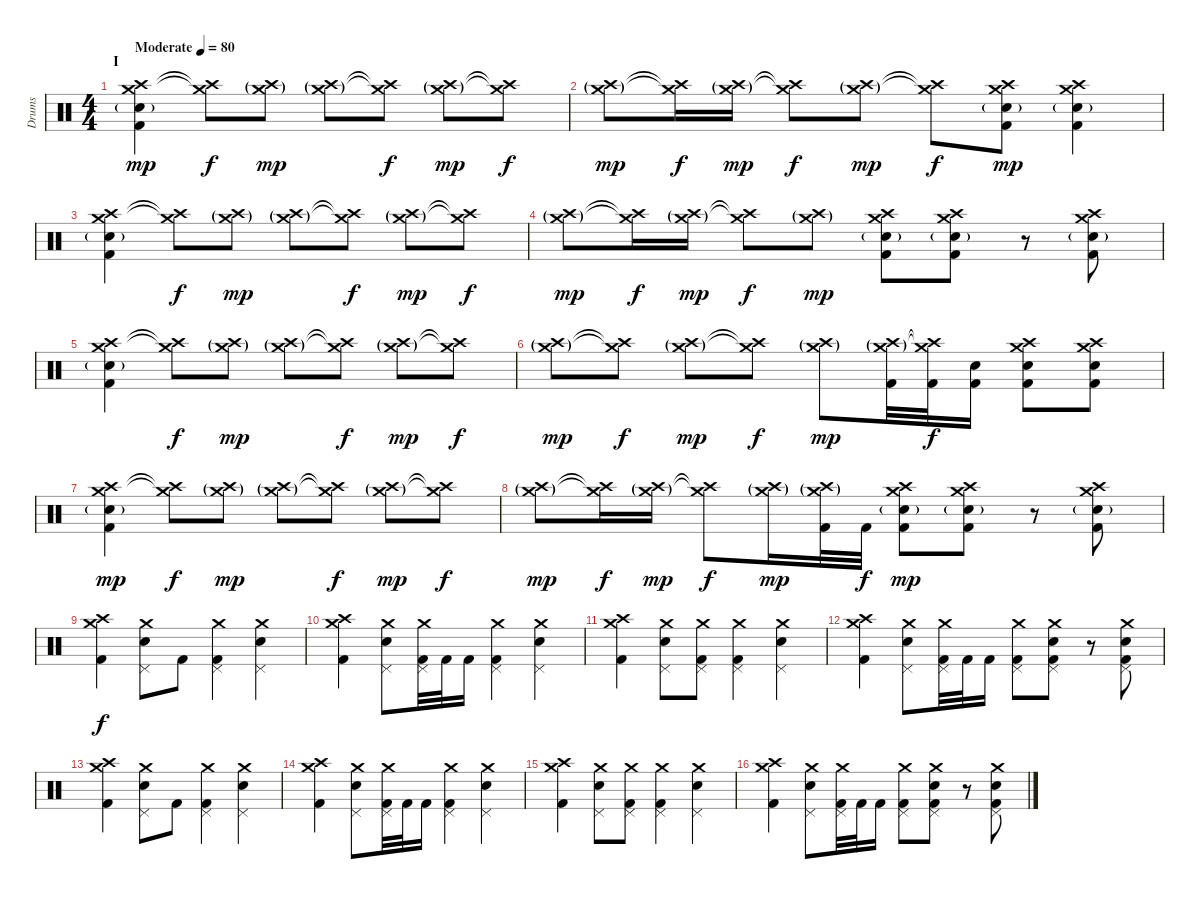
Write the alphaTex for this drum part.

\track ("Drums" "Drums") {instrument percussion}
\staff {score}
\articulation defaults
\ts (4 4)
\section ("" "I")
\tempo (80 "Moderate")
\clef neutral
\ks c
("Crash medium (hit)" "Crash high (hit)" "Electric Snare (hit)"{g} "Kick (hit) 2").4{dy mp} ("Crash medium (hit)"{t} "Crash high (hit)"{t}).8{dy f} ("Crash medium (hit)"{g} "Crash high (hit)"{g}).8{dy mp} ("Crash medium (hit)"{g} "Crash high (hit)"{g}).8 ("Crash medium (hit)"{t} "Crash high (hit)"{t}).8{dy f} ("Crash medium (hit)"{g} "Crash high (hit)"{g}).8{dy mp} ("Crash medium (hit)"{t} "Crash high (hit)"{t}).8{dy f} |
("Crash medium (hit)"{g} "Crash high (hit)"{g}).8{dy mp} ("Crash medium (hit)"{t} "Crash high (hit)"{t}).16{dy f} ("Crash medium (hit)"{g} "Crash high (hit)"{g}).16{dy mp} ("Crash medium (hit)"{t} "Crash high (hit)"{t}).8{dy f} ("Crash medium (hit)"{g} "Crash high (hit)"{g}).8{dy mp} ("Crash medium (hit)"{t} "Crash high (hit)"{t}).8{dy f} ("Crash medium (hit)" "Crash high (hit)" "Electric Snare (hit)"{g} "Kick (hit) 2").8{dy mp} ("Crash medium (hit)" "Crash high (hit)" "Electric Snare (hit)"{g} "Kick (hit) 2").4 |
("Crash medium (hit)" "Crash high (hit)" "Electric Snare (hit)"{g} "Kick (hit) 2").4 ("Crash medium (hit)"{t} "Crash high (hit)"{t}).8{dy f} ("Crash medium (hit)"{g} "Crash high (hit)"{g}).8{dy mp} ("Crash medium (hit)"{g} "Crash high (hit)"{g}).8 ("Crash medium (hit)"{t} "Crash high (hit)"{t}).8{dy f} ("Crash medium (hit)"{g} "Crash high (hit)"{g}).8{dy mp} ("Crash medium (hit)"{t} "Crash high (hit)"{t}).8{dy f} |
("Crash medium (hit)"{g} "Crash high (hit)"{g}).8{dy mp} ("Crash medium (hit)"{t} "Crash high (hit)"{t}).16{dy f} ("Crash medium (hit)"{g} "Crash high (hit)"{g}).16{dy mp} ("Crash medium (hit)"{t} "Crash high (hit)"{t}).8{dy f} ("Crash medium (hit)"{g} "Crash high (hit)"{g}).8{dy mp} ("Crash medium (hit)" "Crash high (hit)" "Electric Snare (hit)"{g} "Kick (hit) 2").8 ("Crash medium (hit)" "Crash high (hit)" "Electric Snare (hit)"{g} "Kick (hit) 2").8 r.8 ("Crash medium (hit)" "Crash high (hit)" "Electric Snare (hit)"{g} "Kick (hit) 2").8 |
("Crash medium (hit)" "Crash high (hit)" "Electric Snare (hit)"{g} "Kick (hit) 2").4 ("Crash medium (hit)"{t} "Crash high (hit)"{t}).8{dy f} ("Crash medium (hit)"{g} "Crash high (hit)"{g}).8{dy mp} ("Crash medium (hit)"{g} "Crash high (hit)"{g}).8 ("Crash medium (hit)"{t} "Crash high (hit)"{t}).8{dy f} ("Crash medium (hit)"{g} "Crash high (hit)"{g}).8{dy mp} ("Crash medium (hit)"{t} "Crash high (hit)"{t}).8{dy f} |
("Crash medium (hit)"{g} "Crash high (hit)"{g}).8{dy mp} ("Crash medium (hit)"{t} "Crash high (hit)"{t}).8{dy f} ("Crash medium (hit)"{g} "Crash high (hit)"{g}).8{dy mp} ("Crash medium (hit)"{t} "Crash high (hit)"{t}).8{dy f} ("Crash medium (hit)"{g} "Crash high (hit)"{g}).8{dy mp} ("Crash medium (hit)"{g} "Crash high (hit)"{g} "Kick (hit) 2").32 ("Crash medium (hit)"{t} "Crash high (hit)"{t} "Kick (hit) 2").32{dy f} ("Electric Snare (hit)" "Kick (hit) 2").16 ("Crash medium (hit)" "Crash high (hit)" "Electric Snare (hit)" "Kick (hit) 2").8 ("Crash medium (hit)" "Crash high (hit)" "Electric Snare (hit)" "Kick (hit) 2").8 |
("Crash medium (hit)" "Crash high (hit)" "Electric Snare (hit)"{g} "Kick (hit) 2").4{dy mp} ("Crash medium (hit)"{t} "Crash high (hit)"{t}).8{dy f} ("Crash medium (hit)"{g} "Crash high (hit)"{g}).8{dy mp} ("Crash medium (hit)"{g} "Crash high (hit)"{g}).8 ("Crash medium (hit)"{t} "Crash high (hit)"{t}).8{dy f} ("Crash medium (hit)"{g} "Crash high (hit)"{g}).8{dy mp} ("Crash medium (hit)"{t} "Crash high (hit)"{t}).8{dy f} |
("Crash medium (hit)"{g} "Crash high (hit)"{g}).8{dy mp} ("Crash medium (hit)"{t} "Crash high (hit)"{t}).16{dy f} ("Crash medium (hit)"{g} "Crash high (hit)"{g}).16{dy mp} ("Crash medium (hit)"{t} "Crash high (hit)"{t}).8{dy f} ("Crash medium (hit)"{g} "Crash high (hit)"{g}).16{dy mp} ("Crash medium (hit)"{g} "Crash high (hit)"{g} "Kick (hit) 2").32 "Kick (hit) 2".32{dy f} ("Crash medium (hit)" "Crash high (hit)" "Electric Snare (hit)"{g} "Kick (hit) 2").8{dy mp} ("Crash medium (hit)" "Crash high (hit)" "Electric Snare (hit)"{g} "Kick (hit) 2").8 r.8 ("Crash medium (hit)" "Crash high (hit)" "Electric Snare (hit)"{g} "Kick (hit) 2").8 |
("Crash medium (hit)" "Crash high (hit)" "Kick (hit) 2").4{dy f} ("Crash medium (hit)" "Pedal Hi-Hat (hit)" "Snare (hit) 2").8 "Kick (hit) 2".8 ("Crash medium (hit)" "Pedal Hi-Hat (hit)" "Kick (hit) 2").4 ("Crash medium (hit)" "Pedal Hi-Hat (hit)" "Snare (hit) 2").4 |
("Crash medium (hit)" "Crash high (hit)" "Kick (hit) 2").4 ("Crash medium (hit)" "Pedal Hi-Hat (hit)" "Snare (hit) 2").8 ("Crash medium (hit)" "Pedal Hi-Hat (hit)" "Kick (hit) 2").32 "Kick (hit) 2".32 "Kick (hit) 2".16 ("Crash medium (hit)" "Pedal Hi-Hat (hit)" "Kick (hit) 2").4 ("Crash medium (hit)" "Pedal Hi-Hat (hit)" "Snare (hit) 2").4 |
("Crash medium (hit)" "Crash high (hit)" "Kick (hit) 2").4 ("Crash medium (hit)" "Pedal Hi-Hat (hit)" "Snare (hit) 2").8 ("Crash medium (hit)" "Pedal Hi-Hat (hit)" "Kick (hit) 2").8 ("Crash medium (hit)" "Pedal Hi-Hat (hit)" "Kick (hit) 2").4 ("Crash medium (hit)" "Pedal Hi-Hat (hit)" "Snare (hit) 2").4 |
("Crash medium (hit)" "Crash high (hit)" "Kick (hit) 2").4 ("Crash medium (hit)" "Pedal Hi-Hat (hit)" "Snare (hit) 2").8 ("Crash medium (hit)" "Pedal Hi-Hat (hit)" "Kick (hit) 2").32 "Kick (hit) 2".32 "Kick (hit) 2".16 ("Crash medium (hit)" "Pedal Hi-Hat (hit)" "Kick (hit) 2").8 ("Crash medium (hit)" "Pedal Hi-Hat (hit)" "Snare (hit) 2" "Kick (hit) 2").8 r.8 ("Crash medium (hit)" "Pedal Hi-Hat (hit)" "Snare (hit) 2" "Kick (hit) 2").8 |
("Crash medium (hit)" "Crash high (hit)" "Kick (hit) 2").4 ("Crash medium (hit)" "Pedal Hi-Hat (hit)" "Snare (hit) 2").8 "Kick (hit) 2".8 ("Crash medium (hit)" "Pedal Hi-Hat (hit)" "Kick (hit) 2").4 ("Crash medium (hit)" "Pedal Hi-Hat (hit)" "Snare (hit) 2").4 |
("Crash medium (hit)" "Crash high (hit)" "Kick (hit) 2").4 ("Crash medium (hit)" "Pedal Hi-Hat (hit)" "Snare (hit) 2").8 ("Crash medium (hit)" "Pedal Hi-Hat (hit)" "Kick (hit) 2").32 "Kick (hit) 2".32 "Kick (hit) 2".16 ("Crash medium (hit)" "Pedal Hi-Hat (hit)" "Kick (hit) 2").4 ("Crash medium (hit)" "Pedal Hi-Hat (hit)" "Snare (hit) 2").4 |
("Crash medium (hit)" "Crash high (hit)" "Kick (hit) 2").4 ("Crash medium (hit)" "Pedal Hi-Hat (hit)" "Snare (hit) 2").8 ("Crash medium (hit)" "Pedal Hi-Hat (hit)" "Kick (hit) 2").8 ("Crash medium (hit)" "Pedal Hi-Hat (hit)" "Kick (hit) 2").4 ("Crash medium (hit)" "Pedal Hi-Hat (hit)" "Snare (hit) 2").4 |
("Crash medium (hit)" "Crash high (hit)" "Kick (hit) 2").4 ("Crash medium (hit)" "Pedal Hi-Hat (hit)" "Snare (hit) 2").8 ("Crash medium (hit)" "Pedal Hi-Hat (hit)" "Kick (hit) 2").32 "Kick (hit) 2".32 "Kick (hit) 2".16 ("Crash medium (hit)" "Pedal Hi-Hat (hit)" "Kick (hit) 2").8 ("Crash medium (hit)" "Pedal Hi-Hat (hit)" "Snare (hit) 2" "Kick (hit) 2").8 r.8 ("Crash medium (hit)" "Pedal Hi-Hat (hit)" "Snare (hit) 2" "Kick (hit) 2").8
